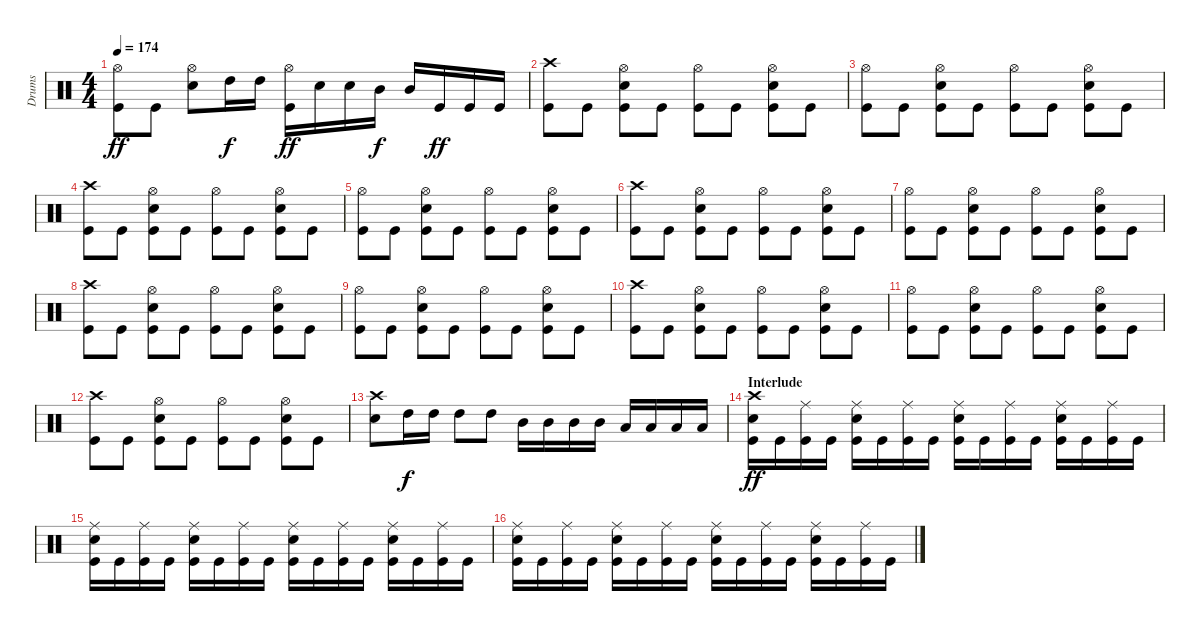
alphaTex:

\track ("Drums" "Drums") {instrument percussion}
\staff {score}
\articulation defaults
\ts (4 4)
\tempo 174
\clef neutral
\ks c
("Hi-Hat (open)" "Kick (hit)").8{dy ff} "Kick (hit)".8 ("Hi-Hat (open)" "Electric Snare (hit)").8 "High Tom (hit)".16{dy f} "High Tom (hit)".16 ("Hi-Hat (open)" "Kick (hit)").16{dy ff} "Electric Snare (hit)".16 "Electric Snare (hit)".16 "Mid Tom (hit)".16{dy f} "Mid Tom (hit)".16 "Kick (hit)".16{dy ff} "Kick (hit)".16 "Kick (hit)".16 |
("Crash high (hit)" "Kick (hit)").8 "Kick (hit)".8 ("Hi-Hat (open)" "Electric Snare (hit)" "Kick (hit)").8 "Kick (hit)".8 ("Hi-Hat (open)" "Kick (hit)").8 "Kick (hit)".8 ("Hi-Hat (open)" "Electric Snare (hit)" "Kick (hit)").8 "Kick (hit)".8 |
("Hi-Hat (open)" "Kick (hit)").8 "Kick (hit)".8 ("Hi-Hat (open)" "Electric Snare (hit)" "Kick (hit)").8 "Kick (hit)".8 ("Hi-Hat (open)" "Kick (hit)").8 "Kick (hit)".8 ("Hi-Hat (open)" "Electric Snare (hit)" "Kick (hit)").8 "Kick (hit)".8 |
("Crash high (hit)" "Kick (hit)").8 "Kick (hit)".8 ("Hi-Hat (open)" "Electric Snare (hit)" "Kick (hit)").8 "Kick (hit)".8 ("Hi-Hat (open)" "Kick (hit)").8 "Kick (hit)".8 ("Hi-Hat (open)" "Electric Snare (hit)" "Kick (hit)").8 "Kick (hit)".8 |
("Hi-Hat (open)" "Kick (hit)").8 "Kick (hit)".8 ("Hi-Hat (open)" "Electric Snare (hit)" "Kick (hit)").8 "Kick (hit)".8 ("Hi-Hat (open)" "Kick (hit)").8 "Kick (hit)".8 ("Hi-Hat (open)" "Electric Snare (hit)" "Kick (hit)").8 "Kick (hit)".8 |
("Crash high (hit)" "Kick (hit)").8 "Kick (hit)".8 ("Hi-Hat (open)" "Electric Snare (hit)" "Kick (hit)").8 "Kick (hit)".8 ("Hi-Hat (open)" "Kick (hit)").8 "Kick (hit)".8 ("Hi-Hat (open)" "Electric Snare (hit)" "Kick (hit)").8 "Kick (hit)".8 |
("Hi-Hat (open)" "Kick (hit)").8 "Kick (hit)".8 ("Hi-Hat (open)" "Electric Snare (hit)" "Kick (hit)").8 "Kick (hit)".8 ("Hi-Hat (open)" "Kick (hit)").8 "Kick (hit)".8 ("Hi-Hat (open)" "Electric Snare (hit)" "Kick (hit)").8 "Kick (hit)".8 |
("Crash high (hit)" "Kick (hit)").8 "Kick (hit)".8 ("Hi-Hat (open)" "Electric Snare (hit)" "Kick (hit)").8 "Kick (hit)".8 ("Hi-Hat (open)" "Kick (hit)").8 "Kick (hit)".8 ("Hi-Hat (open)" "Electric Snare (hit)" "Kick (hit)").8 "Kick (hit)".8 |
("Hi-Hat (open)" "Kick (hit)").8 "Kick (hit)".8 ("Hi-Hat (open)" "Electric Snare (hit)" "Kick (hit)").8 "Kick (hit)".8 ("Hi-Hat (open)" "Kick (hit)").8 "Kick (hit)".8 ("Hi-Hat (open)" "Electric Snare (hit)" "Kick (hit)").8 "Kick (hit)".8 |
("Crash high (hit)" "Kick (hit)").8 "Kick (hit)".8 ("Hi-Hat (open)" "Electric Snare (hit)" "Kick (hit)").8 "Kick (hit)".8 ("Hi-Hat (open)" "Kick (hit)").8 "Kick (hit)".8 ("Hi-Hat (open)" "Electric Snare (hit)" "Kick (hit)").8 "Kick (hit)".8 |
("Hi-Hat (open)" "Kick (hit)").8 "Kick (hit)".8 ("Hi-Hat (open)" "Electric Snare (hit)" "Kick (hit)").8 "Kick (hit)".8 ("Hi-Hat (open)" "Kick (hit)").8 "Kick (hit)".8 ("Hi-Hat (open)" "Electric Snare (hit)" "Kick (hit)").8 "Kick (hit)".8 |
("Crash high (hit)" "Kick (hit)").8 "Kick (hit)".8 ("Hi-Hat (open)" "Electric Snare (hit)" "Kick (hit)").8 "Kick (hit)".8 ("Hi-Hat (open)" "Kick (hit)").8 "Kick (hit)".8 ("Hi-Hat (open)" "Electric Snare (hit)" "Kick (hit)").8 "Kick (hit)".8 |
("Crash high (hit)" "Electric Snare (hit)").8 "High Tom (hit)".16{dy f} "High Tom (hit)".16 "High Tom (hit)".8 "High Tom (hit)".8 "Mid Tom (hit)".16 "Mid Tom (hit)".16 "Mid Tom (hit)".16 "Mid Tom (hit)".16 "Low Tom (hit)".16 "Low Tom (hit)".16 "Low Tom (hit)".16 "Low Tom (hit)".16 |
\section ("" "Interlude")
("Crash high (hit)" "Electric Snare (hit)" "Kick (hit)").16{dy ff} "Kick (hit)".16 ("Ride (middle)" "Kick (hit)").16 "Kick (hit)".16 ("Ride (middle)" "Electric Snare (hit)" "Kick (hit)").16 "Kick (hit)".16 ("Ride (middle)" "Kick (hit)").16 "Kick (hit)".16 ("Ride (middle)" "Electric Snare (hit)" "Kick (hit)").16 "Kick (hit)".16 ("Ride (middle)" "Kick (hit)").16 "Kick (hit)".16 ("Ride (middle)" "Electric Snare (hit)" "Kick (hit)").16 "Kick (hit)".16 ("Ride (middle)" "Kick (hit)").16 "Kick (hit)".16 |
("Ride (middle)" "Electric Snare (hit)" "Kick (hit)").16 "Kick (hit)".16 ("Ride (middle)" "Kick (hit)").16 "Kick (hit)".16 ("Ride (middle)" "Electric Snare (hit)" "Kick (hit)").16 "Kick (hit)".16 ("Ride (middle)" "Kick (hit)").16 "Kick (hit)".16 ("Ride (middle)" "Electric Snare (hit)" "Kick (hit)").16 "Kick (hit)".16 ("Ride (middle)" "Kick (hit)").16 "Kick (hit)".16 ("Ride (middle)" "Electric Snare (hit)" "Kick (hit)").16 "Kick (hit)".16 ("Ride (middle)" "Kick (hit)").16 "Kick (hit)".16 |
("Ride (middle)" "Electric Snare (hit)" "Kick (hit)").16 "Kick (hit)".16 ("Ride (middle)" "Kick (hit)").16 "Kick (hit)".16 ("Ride (middle)" "Electric Snare (hit)" "Kick (hit)").16 "Kick (hit)".16 ("Ride (middle)" "Kick (hit)").16 "Kick (hit)".16 ("Ride (middle)" "Electric Snare (hit)" "Kick (hit)").16 "Kick (hit)".16 ("Ride (middle)" "Kick (hit)").16 "Kick (hit)".16 ("Ride (middle)" "Electric Snare (hit)" "Kick (hit)").16 "Kick (hit)".16 ("Ride (middle)" "Kick (hit)").16 "Kick (hit)".16
